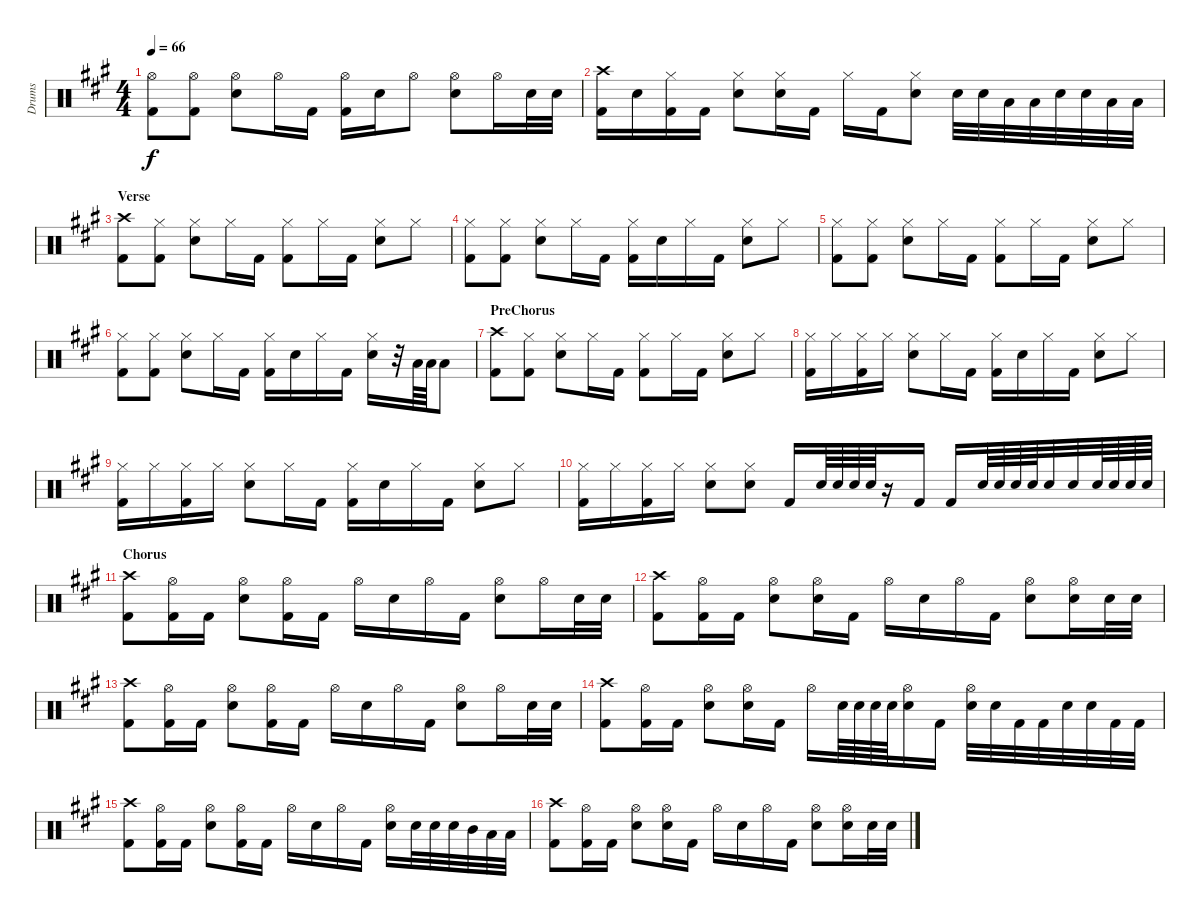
\track ("Drums" "Drums") {instrument percussion}
\staff {score}
\articulation defaults
\ts (4 4)
\tempo 66
\clef neutral
\ks a
("Hi-Hat (open)" "Kick (hit) 2").8{dy f} ("Hi-Hat (open)" "Kick (hit) 2").8 ("Hi-Hat (open)" "Snare (hit) 2").8 "Hi-Hat (open)".16 "Kick (hit) 2".16 ("Hi-Hat (open)" "Kick (hit) 2").16 "Snare (hit) 2".16 "Hi-Hat (open)".8 ("Hi-Hat (open)" "Snare (hit) 2").8 "Hi-Hat (open)".16 "Snare (hit) 2".32 "Snare (hit) 2".32 |
("Crash high (hit)" "Kick (hit) 2").16 "Snare (hit) 2".16 ("Hi-Hat (closed)" "Kick (hit) 2").16 "Kick (hit) 2".16 ("Hi-Hat (closed)" "Snare (hit) 2").8 ("Hi-Hat (closed)" "Snare (hit) 2").16 "Kick (hit) 2".16 "Hi-Hat (closed)".16 "Kick (hit) 2".16 ("Hi-Hat (closed)" "Snare (hit) 2").8 "Snare (hit) 2".32 "Snare (hit) 2".32 "Low Tom (hit)".32 "Low Floor Tom (hit)".32 "Snare (hit) 2".32 "Snare (hit) 2".32 "Low Tom (hit)".32 "Low Floor Tom (hit)".32 |
\section ("" "Verse")
("Crash high (hit)" "Kick (hit) 2").8 ("Hi-Hat (closed)" "Kick (hit) 2").8 ("Hi-Hat (closed)" "Snare (hit) 2").8 "Hi-Hat (closed)".16 "Kick (hit) 2".16 ("Hi-Hat (closed)" "Kick (hit) 2").8 "Hi-Hat (closed)".16 "Kick (hit) 2".16 ("Hi-Hat (closed)" "Snare (hit) 2").8 "Hi-Hat (closed)".8 |
("Hi-Hat (closed)" "Kick (hit) 2").8 ("Hi-Hat (closed)" "Kick (hit) 2").8 ("Hi-Hat (closed)" "Snare (hit) 2").8 "Hi-Hat (closed)".16 "Kick (hit) 2".16 ("Hi-Hat (closed)" "Kick (hit) 2").16 "Snare (hit) 2".16 "Hi-Hat (closed)".16 "Kick (hit) 2".16 ("Hi-Hat (closed)" "Snare (hit) 2").8 "Hi-Hat (closed)".8 |
("Hi-Hat (closed)" "Kick (hit) 2").8 ("Hi-Hat (closed)" "Kick (hit) 2").8 ("Hi-Hat (closed)" "Snare (hit) 2").8 "Hi-Hat (closed)".16 "Kick (hit) 2".16 ("Hi-Hat (closed)" "Kick (hit) 2").8 "Hi-Hat (closed)".16 "Kick (hit) 2".16 ("Hi-Hat (closed)" "Snare (hit) 2").8 "Hi-Hat (closed)".8 |
("Hi-Hat (closed)" "Kick (hit) 2").8 ("Hi-Hat (closed)" "Kick (hit) 2").8 ("Hi-Hat (closed)" "Snare (hit) 2").8 "Hi-Hat (closed)".16 "Kick (hit) 2".16 ("Hi-Hat (closed)" "Kick (hit) 2").16 "Snare (hit) 2".16 "Hi-Hat (closed)".16 "Kick (hit) 2".16 ("Hi-Hat (closed)" "Snare (hit) 2").16 r.32 "Low Floor Tom (hit)".64 "Low Floor Tom (hit)".64 "Low Floor Tom (hit)".8 |
\section ("" "PreChorus")
("Crash high (hit)" "Kick (hit) 2").8 ("Hi-Hat (closed)" "Kick (hit) 2").8 ("Hi-Hat (closed)" "Snare (hit) 2").8 "Hi-Hat (closed)".16 "Kick (hit) 2".16 ("Hi-Hat (closed)" "Kick (hit) 2").8 "Hi-Hat (closed)".16 "Kick (hit) 2".16 ("Hi-Hat (closed)" "Snare (hit) 2").8 "Hi-Hat (closed)".8 |
("Hi-Hat (closed)" "Kick (hit) 2").16 "Hi-Hat (closed)".16 ("Hi-Hat (closed)" "Kick (hit) 2").16 "Hi-Hat (closed)".16 ("Hi-Hat (closed)" "Snare (hit) 2").8 "Hi-Hat (closed)".16 "Kick (hit) 2".16 ("Hi-Hat (closed)" "Kick (hit) 2").16 "Snare (hit) 2".16 "Hi-Hat (closed)".16 "Kick (hit) 2".16 ("Hi-Hat (closed)" "Snare (hit) 2").8 "Hi-Hat (closed)".8 |
("Hi-Hat (closed)" "Kick (hit) 2").16 "Hi-Hat (closed)".16 ("Hi-Hat (closed)" "Kick (hit) 2").16 "Hi-Hat (closed)".16 ("Hi-Hat (closed)" "Snare (hit) 2").8 "Hi-Hat (closed)".16 "Kick (hit) 2".16 ("Hi-Hat (closed)" "Kick (hit) 2").16 "Snare (hit) 2".16 "Hi-Hat (closed)".16 "Kick (hit) 2".16 ("Hi-Hat (closed)" "Snare (hit) 2").8 "Hi-Hat (closed)".8 |
("Hi-Hat (closed)" "Kick (hit) 2").16 "Hi-Hat (closed)".16 ("Hi-Hat (closed)" "Kick (hit) 2").16 "Hi-Hat (closed)".16 ("Hi-Hat (closed)" "Snare (hit) 2").8 ("Hi-Hat (closed)" "Snare (hit) 2").8 "Kick (hit) 2".16 "Snare (hit) 2".64 "Snare (hit) 2".64 "Snare (hit) 2".64 "Snare (hit) 2".64 r.16 "Kick (hit) 2".16 "Kick (hit) 2".16 "Snare (hit) 2".64 "Snare (hit) 2".64 "Snare (hit) 2".64 "Snare (hit) 2".64 "Snare (hit) 2".32 "Snare (hit) 2".32 "Snare (hit) 2".64 "Snare (hit) 2".64 "Snare (hit) 2".64 "Snare (hit) 2".64 |
\section ("" "Chorus")
("Crash high (hit)" "Kick (hit) 2").8 ("Hi-Hat (open)" "Kick (hit) 2").16 "Kick (hit) 2".16 ("Hi-Hat (open)" "Snare (hit) 2").8 ("Hi-Hat (open)" "Kick (hit) 2").16 "Kick (hit) 2".16 "Hi-Hat (open)".16 "Snare (hit) 2".16 "Hi-Hat (open)".16 "Kick (hit) 2".16 ("Hi-Hat (open)" "Snare (hit) 2").8 "Hi-Hat (open)".16 "Snare (hit) 2".32 "Snare (hit) 2".32 |
("Crash high (hit)" "Kick (hit) 2").8 ("Hi-Hat (open)" "Kick (hit) 2").16 "Kick (hit) 2".16 ("Hi-Hat (open)" "Snare (hit) 2").8 ("Hi-Hat (open)" "Snare (hit) 2").16 "Kick (hit) 2".16 "Hi-Hat (open)".16 "Snare (hit) 2".16 "Hi-Hat (open)".16 "Kick (hit) 2".16 ("Hi-Hat (open)" "Snare (hit) 2").8 ("Hi-Hat (open)" "Snare (hit) 2").16 "Snare (hit) 2".32 "Snare (hit) 2".32 |
("Crash high (hit)" "Kick (hit) 2").8 ("Hi-Hat (open)" "Kick (hit) 2").16 "Kick (hit) 2".16 ("Hi-Hat (open)" "Snare (hit) 2").8 ("Hi-Hat (open)" "Kick (hit) 2").16 "Kick (hit) 2".16 "Hi-Hat (open)".16 "Snare (hit) 2".16 "Hi-Hat (open)".16 "Kick (hit) 2".16 ("Hi-Hat (open)" "Snare (hit) 2").8 "Hi-Hat (open)".16 "Snare (hit) 2".32 "Snare (hit) 2".32 |
("Crash high (hit)" "Kick (hit) 2").8 ("Hi-Hat (open)" "Kick (hit) 2").16 "Kick (hit) 2".16 ("Hi-Hat (open)" "Snare (hit) 2").8 ("Hi-Hat (open)" "Snare (hit) 2").16 "Kick (hit) 2".16 "Hi-Hat (open)".16 "Snare (hit) 2".64 "Snare (hit) 2".64 "Snare (hit) 2".64 "Snare (hit) 2".64 ("Hi-Hat (open)" "Snare (hit) 2").16 "Kick (hit) 2".16 ("Hi-Hat (open)" "Snare (hit) 2").32 "Snare (hit) 2".32 "Kick (hit) 2".32 "Kick (hit) 2".32 "Snare (hit) 2".32 "Snare (hit) 2".32 "Kick (hit) 2".32 "Kick (hit) 2".32 |
("Crash high (hit)" "Kick (hit) 2").8 ("Hi-Hat (open)" "Kick (hit) 2").16 "Kick (hit) 2".16 ("Hi-Hat (open)" "Snare (hit) 2").8 ("Hi-Hat (open)" "Kick (hit) 2").16 "Kick (hit) 2".16 "Hi-Hat (open)".16 "Snare (hit) 2".16 "Hi-Hat (open)".16 "Kick (hit) 2".16 ("Hi-Hat (open)" "Snare (hit) 2").16 "Snare (hit) 2".32 "Snare (hit) 2".32 "Snare (hit) 2".32 "Mid Tom (hit)".32 "Low Tom (hit)".32 "Low Floor Tom (hit)".32 |
("Crash high (hit)" "Kick (hit) 2").8 ("Hi-Hat (open)" "Kick (hit) 2").16 "Kick (hit) 2".16 ("Hi-Hat (open)" "Snare (hit) 2").8 ("Hi-Hat (open)" "Snare (hit) 2").16 "Kick (hit) 2".16 "Hi-Hat (open)".16 "Snare (hit) 2".16 "Hi-Hat (open)".16 "Kick (hit) 2".16 ("Hi-Hat (open)" "Snare (hit) 2").8 ("Hi-Hat (open)" "Snare (hit) 2").16 "Snare (hit) 2".32 "Snare (hit) 2".32
